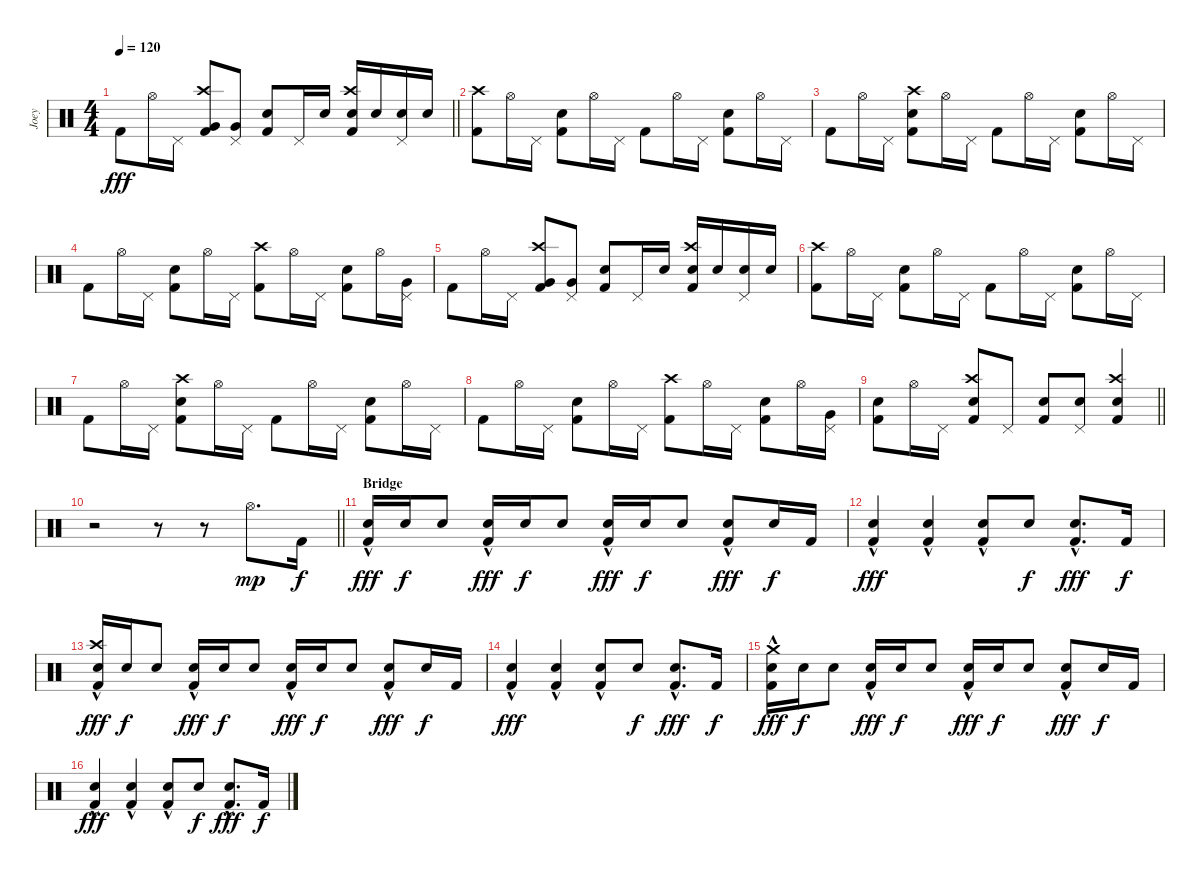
\track ("Joey" "Joey") {instrument percussion}
\staff {score}
\articulation defaults
\ts (4 4)
\tempo 120
\clef neutral
\barLineRight lightlight
\ks c "Kick (hit) 2".8{dy fff} "Hi-Hat (open)".16 "Pedal Hi-Hat (hit)".16
("Crash high (hit)" "Very Low Tom (hit)" "Kick (hit) 2").8 ("Pedal Hi-Hat (hit)" "Very Low Tom (hit)").8 ("Electric Snare (hit)" "Kick (hit) 2").8 "Pedal Hi-Hat (hit)".16 "Electric Snare (hit)".16 ("Crash high (hit)" "Electric Snare (hit)" "Kick (hit) 2").16 "Electric Snare (hit)".16 ("Pedal Hi-Hat (hit)" "Electric Snare (hit)").16 "Electric Snare (hit)".16 |
\section ("" "")
("Crash high (hit)" "Kick (hit) 2").8 "Hi-Hat (open)".16 "Pedal Hi-Hat (hit)".16 ("Electric Snare (hit)" "Kick (hit) 2").8 "Hi-Hat (open)".16 "Pedal Hi-Hat (hit)".16 "Kick (hit) 2".8 "Hi-Hat (open)".16 "Pedal Hi-Hat (hit)".16 ("Electric Snare (hit)" "Kick (hit) 2").8 "Hi-Hat (open)".16 "Pedal Hi-Hat (hit)".16 |
"Kick (hit) 2".8 "Hi-Hat (open)".16 "Pedal Hi-Hat (hit)".16 ("Crash high (hit)" "Electric Snare (hit)" "Kick (hit) 2").8 "Hi-Hat (open)".16 "Pedal Hi-Hat (hit)".16 "Kick (hit) 2".8 "Hi-Hat (open)".16 "Pedal Hi-Hat (hit)".16 ("Electric Snare (hit)" "Kick (hit) 2").8 "Hi-Hat (open)".16 "Pedal Hi-Hat (hit)".16 |
"Kick (hit) 2".8 "Hi-Hat (open)".16 "Pedal Hi-Hat (hit)".16 ("Electric Snare (hit)" "Kick (hit) 2").8 "Hi-Hat (open)".16 "Pedal Hi-Hat (hit)".16 ("Crash high (hit)" "Kick (hit) 2").8 "Hi-Hat (open)".16 "Pedal Hi-Hat (hit)".16 ("Electric Snare (hit)" "Kick (hit) 2").8 "Hi-Hat (open)".16 ("Pedal Hi-Hat (hit)" "Very Low Tom (hit)").16 |
"Kick (hit) 2".8 "Hi-Hat (open)".16 "Pedal Hi-Hat (hit)".16 ("Crash high (hit)" "Very Low Tom (hit)" "Kick (hit) 2").8 ("Pedal Hi-Hat (hit)" "Very Low Tom (hit)").8 ("Electric Snare (hit)" "Kick (hit) 2").8 "Pedal Hi-Hat (hit)".16 "Electric Snare (hit)".16 ("Crash high (hit)" "Electric Snare (hit)" "Kick (hit) 2").16 "Electric Snare (hit)".16 ("Pedal Hi-Hat (hit)" "Electric Snare (hit)").16 "Electric Snare (hit)".16 |
("Crash high (hit)" "Kick (hit) 2").8 "Hi-Hat (open)".16 "Pedal Hi-Hat (hit)".16 ("Electric Snare (hit)" "Kick (hit) 2").8 "Hi-Hat (open)".16 "Pedal Hi-Hat (hit)".16 "Kick (hit) 2".8 "Hi-Hat (open)".16 "Pedal Hi-Hat (hit)".16 ("Electric Snare (hit)" "Kick (hit) 2").8 "Hi-Hat (open)".16 "Pedal Hi-Hat (hit)".16 |
"Kick (hit) 2".8 "Hi-Hat (open)".16 "Pedal Hi-Hat (hit)".16 ("Crash high (hit)" "Electric Snare (hit)" "Kick (hit) 2").8 "Hi-Hat (open)".16 "Pedal Hi-Hat (hit)".16 "Kick (hit) 2".8 "Hi-Hat (open)".16 "Pedal Hi-Hat (hit)".16 ("Electric Snare (hit)" "Kick (hit) 2").8 "Hi-Hat (open)".16 "Pedal Hi-Hat (hit)".16 |
"Kick (hit) 2".8 "Hi-Hat (open)".16 "Pedal Hi-Hat (hit)".16 ("Electric Snare (hit)" "Kick (hit) 2").8 "Hi-Hat (open)".16 "Pedal Hi-Hat (hit)".16 ("Crash high (hit)" "Kick (hit) 2").8 "Hi-Hat (open)".16 "Pedal Hi-Hat (hit)".16 ("Electric Snare (hit)" "Kick (hit) 2").8 "Hi-Hat (open)".16 ("Pedal Hi-Hat (hit)" "Very Low Tom (hit)").16 |
\barLineRight lightlight
("Electric Snare (hit)" "Kick (hit) 2").8 "Hi-Hat (open)".16 "Pedal Hi-Hat (hit)".16 ("Crash high (hit)" "Electric Snare (hit)" "Kick (hit) 2").8 "Pedal Hi-Hat (hit)".8 ("Electric Snare (hit)" "Kick (hit) 2").8 ("Pedal Hi-Hat (hit)" "Electric Snare (hit)").8 ("Crash high (hit)" "Electric Snare (hit)" "Kick (hit) 2").4 |
\section ("" "")
\barLineRight lightlight
r.2 r.8 r.8 "Hi-Hat (open)".8{d dy mp} "Kick (hit) 2".16{dy f} |
\section ("" "Bridge")
("Electric Snare (hit)"{hac} "Kick (hit) 2"{hac}).16{dy fff} "Electric Snare (hit)".16{dy f} "Electric Snare (hit)".8 ("Electric Snare (hit)"{hac} "Kick (hit) 2"{hac}).16{dy fff} "Electric Snare (hit)".16{dy f} "Electric Snare (hit)".8 ("Electric Snare (hit)"{hac} "Kick (hit) 2"{hac}).16{dy fff} "Electric Snare (hit)".16{dy f} "Electric Snare (hit)".8 ("Electric Snare (hit)" "Kick (hit) 2"{hac}).8{dy fff} "Electric Snare (hit)".16{dy f} "Kick (hit) 2".16 |
("Electric Snare (hit)" "Kick (hit) 2"{hac}).4{dy fff} ("Electric Snare (hit)" "Kick (hit) 2"{hac}).4 ("Electric Snare (hit)" "Kick (hit) 2"{hac}).8 "Electric Snare (hit)".8{dy f} ("Electric Snare (hit)"{hac} "Kick (hit) 2"{hac}).8{d dy fff} "Kick (hit) 2".16{dy f} |
("Crash high (hit)" "Electric Snare (hit)"{hac} "Kick (hit) 2"{hac}).16{dy fff} "Electric Snare (hit)".16{dy f} "Electric Snare (hit)".8 ("Electric Snare (hit)"{hac} "Kick (hit) 2"{hac}).16{dy fff} "Electric Snare (hit)".16{dy f} "Electric Snare (hit)".8 ("Electric Snare (hit)"{hac} "Kick (hit) 2"{hac}).16{dy fff} "Electric Snare (hit)".16{dy f} "Electric Snare (hit)".8 ("Electric Snare (hit)" "Kick (hit) 2"{hac}).8{dy fff} "Electric Snare (hit)".16{dy f} "Kick (hit) 2".16 |
("Electric Snare (hit)" "Kick (hit) 2"{hac}).4{dy fff} ("Electric Snare (hit)" "Kick (hit) 2"{hac}).4 ("Electric Snare (hit)" "Kick (hit) 2"{hac}).8 "Electric Snare (hit)".8{dy f} ("Electric Snare (hit)"{hac} "Kick (hit) 2"{hac}).8{d dy fff} "Kick (hit) 2".16{dy f} |
("Crash medium (hit)" "Electric Snare (hit)"{hac} "Kick (hit) 2"{hac}).16{dy fff} "Electric Snare (hit)".16{dy f} "Electric Snare (hit)".8 ("Electric Snare (hit)"{hac} "Kick (hit) 2"{hac}).16{dy fff} "Electric Snare (hit)".16{dy f} "Electric Snare (hit)".8 ("Electric Snare (hit)"{hac} "Kick (hit) 2"{hac}).16{dy fff} "Electric Snare (hit)".16{dy f} "Electric Snare (hit)".8 ("Electric Snare (hit)" "Kick (hit) 2"{hac}).8{dy fff} "Electric Snare (hit)".16{dy f} "Kick (hit) 2".16 |
("Electric Snare (hit)" "Kick (hit) 2"{hac}).4{dy fff} ("Electric Snare (hit)" "Kick (hit) 2"{hac}).4 ("Electric Snare (hit)" "Kick (hit) 2"{hac}).8 "Electric Snare (hit)".8{dy f} ("Electric Snare (hit)"{hac} "Kick (hit) 2"{hac}).8{d dy fff} "Kick (hit) 2".16{dy f}
